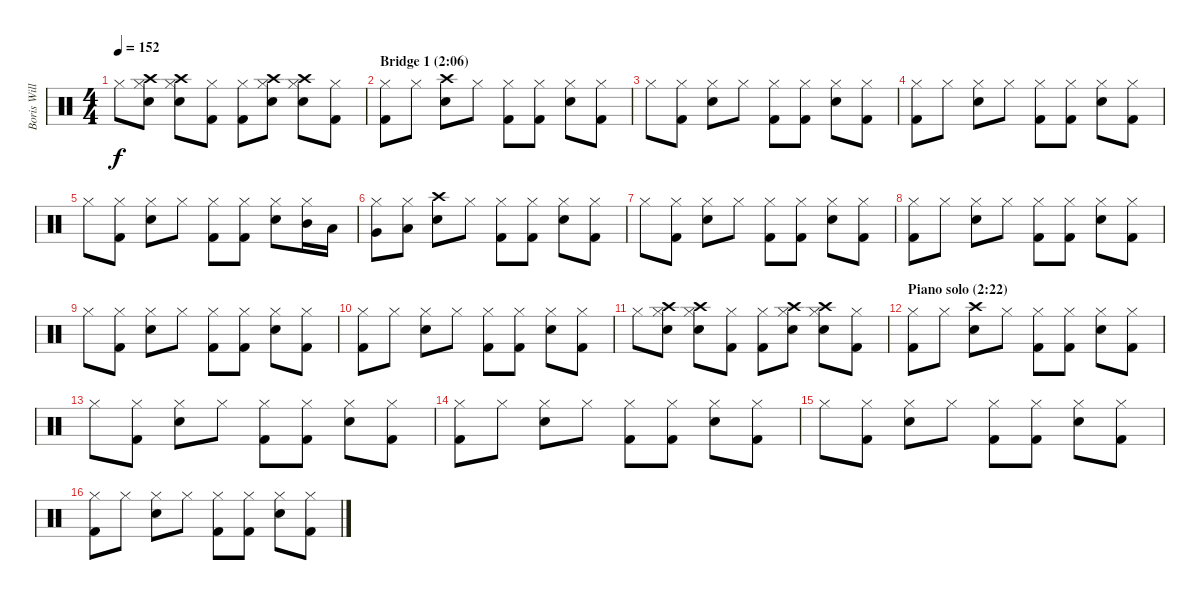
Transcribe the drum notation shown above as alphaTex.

\track ("Boris Williams (drums)" "Boris Will") {instrument percussion}
\staff {score}
\articulation defaults
\ts (4 4)
\tempo 152
\clef neutral
\ks c "Hi-Hat (closed)".8{dy f}
("Crash high (hit)" "Snare (hit) 2" "Hi-Hat (closed)").8 ("Crash high (hit)" "Snare (hit) 2" "Hi-Hat (closed)").8 ("Kick (hit) 2" "Hi-Hat (closed)").8 ("Kick (hit) 2" "Hi-Hat (closed)").8 ("Crash high (hit)" "Snare (hit) 2" "Hi-Hat (closed)").8 ("Crash high (hit)" "Snare (hit) 2" "Hi-Hat (closed)").8 ("Kick (hit) 2" "Hi-Hat (closed)").8 |
\section ("" "Bridge 1 (2:06)")
("Kick (hit) 2" "Hi-Hat (closed)").8 "Hi-Hat (closed)".8 ("Snare (hit) 2" "Crash high (hit)").8 "Hi-Hat (closed)".8 ("Kick (hit) 2" "Hi-Hat (closed)").8 ("Kick (hit) 2" "Hi-Hat (closed)").8 ("Snare (hit) 2" "Hi-Hat (closed)").8 ("Kick (hit) 2" "Hi-Hat (closed)").8 |
"Hi-Hat (closed)".8 ("Kick (hit) 2" "Hi-Hat (closed)").8 ("Snare (hit) 2" "Hi-Hat (closed)").8 "Hi-Hat (closed)".8 ("Kick (hit) 2" "Hi-Hat (closed)").8 ("Kick (hit) 2" "Hi-Hat (closed)").8 ("Snare (hit) 2" "Hi-Hat (closed)").8 ("Kick (hit) 2" "Hi-Hat (closed)").8 |
("Kick (hit) 2" "Hi-Hat (closed)").8 "Hi-Hat (closed)".8 ("Snare (hit) 2" "Hi-Hat (closed)").8 "Hi-Hat (closed)".8 ("Kick (hit) 2" "Hi-Hat (closed)").8 ("Kick (hit) 2" "Hi-Hat (closed)").8 ("Snare (hit) 2" "Hi-Hat (closed)").8 ("Kick (hit) 2" "Hi-Hat (closed)").8 |
"Hi-Hat (closed)".8 ("Kick (hit) 2" "Hi-Hat (closed)").8 ("Snare (hit) 2" "Hi-Hat (closed)").8 "Hi-Hat (closed)".8 ("Kick (hit) 2" "Hi-Hat (closed)").8 ("Kick (hit) 2" "Hi-Hat (closed)").8 ("Snare (hit) 2" "Hi-Hat (closed)").8 ("Mid Tom (hit)" "Hi-Hat (closed)").16 "Low Tom (hit)".16 |
("Very Low Tom (hit)" "Hi-Hat (closed)").8 ("Low Floor Tom (hit)" "Hi-Hat (closed)").8 ("Snare (hit) 2" "Crash high (hit)").8 "Hi-Hat (closed)".8 ("Kick (hit) 2" "Hi-Hat (closed)").8 ("Kick (hit) 2" "Hi-Hat (closed)").8 ("Snare (hit) 2" "Hi-Hat (closed)").8 ("Kick (hit) 2" "Hi-Hat (closed)").8 |
"Hi-Hat (closed)".8 ("Kick (hit) 2" "Hi-Hat (closed)").8 ("Snare (hit) 2" "Hi-Hat (closed)").8 "Hi-Hat (closed)".8 ("Kick (hit) 2" "Hi-Hat (closed)").8 ("Kick (hit) 2" "Hi-Hat (closed)").8 ("Snare (hit) 2" "Hi-Hat (closed)").8 ("Kick (hit) 2" "Hi-Hat (closed)").8 |
("Kick (hit) 2" "Hi-Hat (closed)").8 "Hi-Hat (closed)".8 ("Snare (hit) 2" "Hi-Hat (closed)").8 "Hi-Hat (closed)".8 ("Kick (hit) 2" "Hi-Hat (closed)").8 ("Kick (hit) 2" "Hi-Hat (closed)").8 ("Snare (hit) 2" "Hi-Hat (closed)").8 ("Kick (hit) 2" "Hi-Hat (closed)").8 |
"Hi-Hat (closed)".8 ("Kick (hit) 2" "Hi-Hat (closed)").8 ("Snare (hit) 2" "Hi-Hat (closed)").8 "Hi-Hat (closed)".8 ("Kick (hit) 2" "Hi-Hat (closed)").8 ("Kick (hit) 2" "Hi-Hat (closed)").8 ("Snare (hit) 2" "Hi-Hat (closed)").8 ("Kick (hit) 2" "Hi-Hat (closed)").8 |
("Kick (hit) 2" "Hi-Hat (closed)").8 "Hi-Hat (closed)".8 ("Snare (hit) 2" "Hi-Hat (closed)").8 "Hi-Hat (closed)".8 ("Kick (hit) 2" "Hi-Hat (closed)").8 ("Kick (hit) 2" "Hi-Hat (closed)").8 ("Snare (hit) 2" "Hi-Hat (closed)").8 ("Kick (hit) 2" "Hi-Hat (closed)").8 |
"Hi-Hat (closed)".8 ("Crash high (hit)" "Snare (hit) 2" "Hi-Hat (closed)").8 ("Crash high (hit)" "Snare (hit) 2" "Hi-Hat (closed)").8 ("Kick (hit) 2" "Hi-Hat (closed)").8 ("Kick (hit) 2" "Hi-Hat (closed)").8 ("Crash high (hit)" "Snare (hit) 2" "Hi-Hat (closed)").8 ("Crash high (hit)" "Snare (hit) 2" "Hi-Hat (closed)").8 ("Kick (hit) 2" "Hi-Hat (closed)").8 |
\section ("" "Piano solo (2:22)")
("Kick (hit) 2" "Hi-Hat (closed)").8 "Hi-Hat (closed)".8 ("Snare (hit) 2" "Crash high (hit)").8 "Hi-Hat (closed)".8 ("Kick (hit) 2" "Hi-Hat (closed)").8 ("Kick (hit) 2" "Hi-Hat (closed)").8 ("Snare (hit) 2" "Hi-Hat (closed)").8 ("Kick (hit) 2" "Hi-Hat (closed)").8 |
"Hi-Hat (closed)".8 ("Kick (hit) 2" "Hi-Hat (closed)").8 ("Snare (hit) 2" "Hi-Hat (closed)").8 "Hi-Hat (closed)".8 ("Kick (hit) 2" "Hi-Hat (closed)").8 ("Kick (hit) 2" "Hi-Hat (closed)").8 ("Snare (hit) 2" "Hi-Hat (closed)").8 ("Kick (hit) 2" "Hi-Hat (closed)").8 |
("Kick (hit) 2" "Hi-Hat (closed)").8 "Hi-Hat (closed)".8 ("Snare (hit) 2" "Hi-Hat (closed)").8 "Hi-Hat (closed)".8 ("Kick (hit) 2" "Hi-Hat (closed)").8 ("Kick (hit) 2" "Hi-Hat (closed)").8 ("Snare (hit) 2" "Hi-Hat (closed)").8 ("Kick (hit) 2" "Hi-Hat (closed)").8 |
"Hi-Hat (closed)".8 ("Kick (hit) 2" "Hi-Hat (closed)").8 ("Snare (hit) 2" "Hi-Hat (closed)").8 "Hi-Hat (closed)".8 ("Kick (hit) 2" "Hi-Hat (closed)").8 ("Kick (hit) 2" "Hi-Hat (closed)").8 ("Snare (hit) 2" "Hi-Hat (closed)").8 ("Kick (hit) 2" "Hi-Hat (closed)").8 |
("Kick (hit) 2" "Hi-Hat (closed)").8 "Hi-Hat (closed)".8 ("Snare (hit) 2" "Hi-Hat (closed)").8 "Hi-Hat (closed)".8 ("Kick (hit) 2" "Hi-Hat (closed)").8 ("Kick (hit) 2" "Hi-Hat (closed)").8 ("Snare (hit) 2" "Hi-Hat (closed)").8 ("Kick (hit) 2" "Hi-Hat (closed)").8
